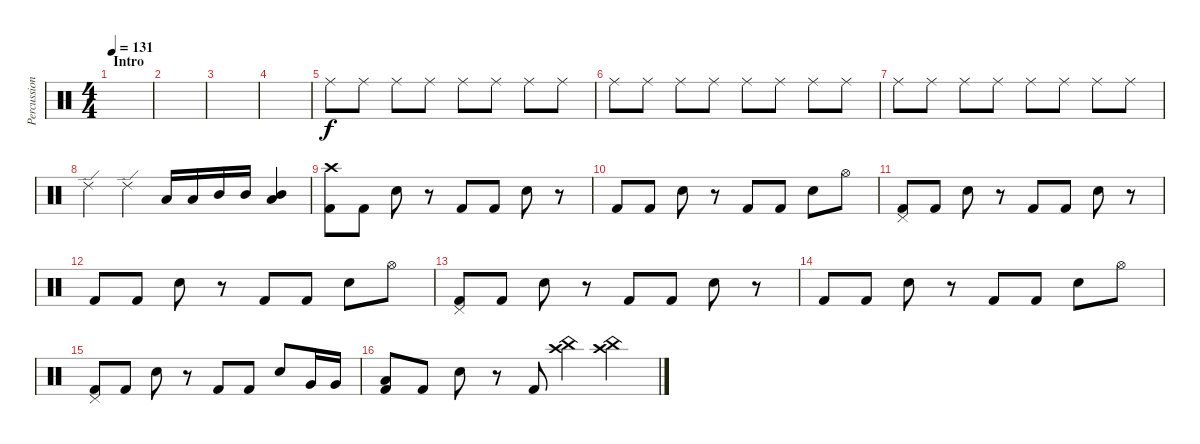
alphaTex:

\track ("Percussion" "Percussion") {instrument percussion}
\staff {score}
\articulation defaults
\ts (4 4)
\section ("" "Intro")
\tempo 131
\clef neutral
\ks c
|
|
|
|
"Ride (middle)".8 "Ride (middle)".8 "Ride (middle)".8 "Ride (middle)".8 "Ride (middle)".8 "Ride (middle)".8 "Ride (middle)".8 "Ride (middle)".8 |
"Ride (middle)".8 "Ride (middle)".8 "Ride (middle)".8 "Ride (middle)".8 "Ride (middle)".8 "Ride (middle)".8 "Ride (middle)".8 "Ride (middle)".8 |
"Ride (middle)".8 "Ride (middle)".8 "Ride (middle)".8 "Ride (middle)".8 "Ride (middle)".8 "Ride (middle)".8 "Ride (middle)".8 "Ride (middle)".8 |
"Ride (edge) 2".4 "Ride (edge) 2".4 "Low Tom (hit)".16 "Low Tom (hit)".16 "Mid Tom (hit)".16 "Mid Tom (hit)".16 ("Mid Tom (hit)" "Low Floor Tom (hit)").4 |
("Crash high (hit)" "Kick (hit) 2").8 "Kick (hit) 2".8 "Electric Snare (hit)".8 r.8 "Kick (hit) 2".8 "Kick (hit) 2".8 "Electric Snare (hit)".8 r.8 |
"Kick (hit) 2".8 "Kick (hit) 2".8 "Electric Snare (hit)".8 r.8 "Kick (hit) 2".8 "Kick (hit) 2".8 "Electric Snare (hit)".8 "Hi-Hat (open)".8 |
("Pedal Hi-Hat (hit)" "Kick (hit) 2").8 "Kick (hit) 2".8 "Electric Snare (hit)".8 r.8 "Kick (hit) 2".8 "Kick (hit) 2".8 "Electric Snare (hit)".8 r.8 |
"Kick (hit) 2".8 "Kick (hit) 2".8 "Electric Snare (hit)".8 r.8 "Kick (hit) 2".8 "Kick (hit) 2".8 "Electric Snare (hit)".8 "Hi-Hat (open)".8 |
("Pedal Hi-Hat (hit)" "Kick (hit) 2").8 "Kick (hit) 2".8 "Electric Snare (hit)".8 r.8 "Kick (hit) 2".8 "Kick (hit) 2".8 "Electric Snare (hit)".8 r.8 |
"Kick (hit) 2".8 "Kick (hit) 2".8 "Electric Snare (hit)".8 r.8 "Kick (hit) 2".8 "Kick (hit) 2".8 "Electric Snare (hit)".8 "Hi-Hat (open)".8 |
("Pedal Hi-Hat (hit)" "Kick (hit) 2").8 "Kick (hit) 2".8 "Electric Snare (hit)".8 r.8 "Kick (hit) 2".8 "Kick (hit) 2".8 "Electric Snare (hit)".8 "Very Low Tom (hit)".16 "Very Low Tom (hit)".16 |
("Low Floor Tom (hit)" "Kick (hit) 2").8 "Kick (hit) 2".8 "Electric Snare (hit)".8 r.8 "Kick (hit) 2".8 ("China (hit)" "Crash high (hit)").4 ("China (hit)" "Crash high (hit)").4
